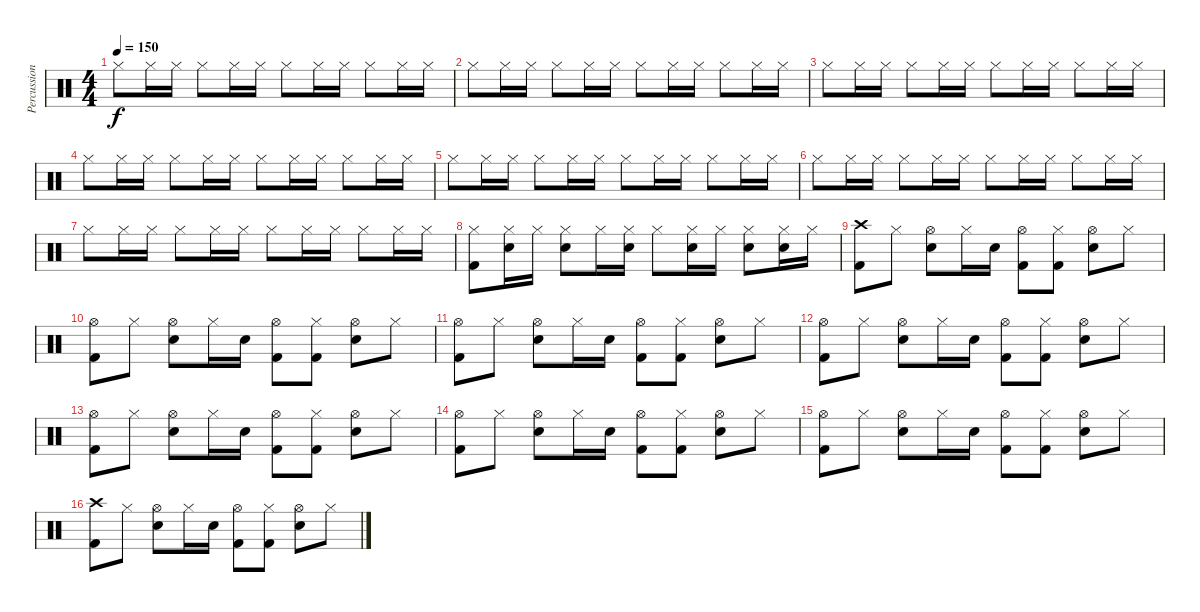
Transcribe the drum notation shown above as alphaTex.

\track ("Percussion" "Percussion") {instrument percussion}
\staff {score}
\articulation defaults
\ts (4 4)
\tempo 150
\clef neutral
\ks c "Hi-Hat (closed)".8{dy f} "Hi-Hat (closed)".16 "Hi-Hat (closed)".16 "Hi-Hat (closed)".8 "Hi-Hat (closed)".16 "Hi-Hat (closed)".16 "Hi-Hat (closed)".8 "Hi-Hat (closed)".16 "Hi-Hat (closed)".16 "Hi-Hat (closed)".8 "Hi-Hat (closed)".16 "Hi-Hat (closed)".16
|
"Hi-Hat (closed)".8 "Hi-Hat (closed)".16 "Hi-Hat (closed)".16 "Hi-Hat (closed)".8 "Hi-Hat (closed)".16 "Hi-Hat (closed)".16 "Hi-Hat (closed)".8 "Hi-Hat (closed)".16 "Hi-Hat (closed)".16 "Hi-Hat (closed)".8 "Hi-Hat (closed)".16 "Hi-Hat (closed)".16 |
"Hi-Hat (closed)".8 "Hi-Hat (closed)".16 "Hi-Hat (closed)".16 "Hi-Hat (closed)".8 "Hi-Hat (closed)".16 "Hi-Hat (closed)".16 "Hi-Hat (closed)".8 "Hi-Hat (closed)".16 "Hi-Hat (closed)".16 "Hi-Hat (closed)".8 "Hi-Hat (closed)".16 "Hi-Hat (closed)".16 |
"Hi-Hat (closed)".8 "Hi-Hat (closed)".16 "Hi-Hat (closed)".16 "Hi-Hat (closed)".8 "Hi-Hat (closed)".16 "Hi-Hat (closed)".16 "Hi-Hat (closed)".8 "Hi-Hat (closed)".16 "Hi-Hat (closed)".16 "Hi-Hat (closed)".8 "Hi-Hat (closed)".16 "Hi-Hat (closed)".16 |
"Hi-Hat (closed)".8 "Hi-Hat (closed)".16 "Hi-Hat (closed)".16 "Hi-Hat (closed)".8 "Hi-Hat (closed)".16 "Hi-Hat (closed)".16 "Hi-Hat (closed)".8 "Hi-Hat (closed)".16 "Hi-Hat (closed)".16 "Hi-Hat (closed)".8 "Hi-Hat (closed)".16 "Hi-Hat (closed)".16 |
"Hi-Hat (closed)".8 "Hi-Hat (closed)".16 "Hi-Hat (closed)".16 "Hi-Hat (closed)".8 "Hi-Hat (closed)".16 "Hi-Hat (closed)".16 "Hi-Hat (closed)".8 "Hi-Hat (closed)".16 "Hi-Hat (closed)".16 "Hi-Hat (closed)".8 "Hi-Hat (closed)".16 "Hi-Hat (closed)".16 |
"Hi-Hat (closed)".8 "Hi-Hat (closed)".16 "Hi-Hat (closed)".16 "Hi-Hat (closed)".8 "Hi-Hat (closed)".16 "Hi-Hat (closed)".16 "Hi-Hat (closed)".8 "Hi-Hat (closed)".16 "Hi-Hat (closed)".16 "Hi-Hat (closed)".8 "Hi-Hat (closed)".16 "Hi-Hat (closed)".16 |
("Hi-Hat (closed)" "Kick (hit) 2").8 ("Hi-Hat (closed)" "Electric Snare (hit)").16 "Hi-Hat (closed)".16 ("Hi-Hat (closed)" "Electric Snare (hit)").8 "Hi-Hat (closed)".16 ("Hi-Hat (closed)" "Electric Snare (hit)").16 "Hi-Hat (closed)".8 ("Hi-Hat (closed)" "Electric Snare (hit)").16 "Hi-Hat (closed)".16 ("Hi-Hat (closed)" "Electric Snare (hit)").8 ("Hi-Hat (closed)" "Electric Snare (hit)").16 "Hi-Hat (closed)".16 |
("Crash high (hit)" "Kick (hit) 2").8 "Hi-Hat (closed)".8 ("Hi-Hat (open)" "Electric Snare (hit)").8 "Hi-Hat (closed)".16 "Electric Snare (hit)".16 ("Hi-Hat (open)" "Kick (hit) 2").8 ("Hi-Hat (closed)" "Kick (hit) 2").8 ("Hi-Hat (open)" "Electric Snare (hit)").8 "Hi-Hat (closed)".8 |
("Hi-Hat (open)" "Kick (hit) 2").8 "Hi-Hat (closed)".8 ("Hi-Hat (open)" "Electric Snare (hit)").8 "Hi-Hat (closed)".16 "Electric Snare (hit)".16 ("Hi-Hat (open)" "Kick (hit) 2").8 ("Hi-Hat (closed)" "Kick (hit) 2").8 ("Hi-Hat (open)" "Electric Snare (hit)").8 "Hi-Hat (closed)".8 |
("Hi-Hat (open)" "Kick (hit) 2").8 "Hi-Hat (closed)".8 ("Hi-Hat (open)" "Electric Snare (hit)").8 "Hi-Hat (closed)".16 "Electric Snare (hit)".16 ("Hi-Hat (open)" "Kick (hit) 2").8 ("Hi-Hat (closed)" "Kick (hit) 2").8 ("Hi-Hat (open)" "Electric Snare (hit)").8 "Hi-Hat (closed)".8 |
("Hi-Hat (open)" "Kick (hit) 2").8 "Hi-Hat (closed)".8 ("Hi-Hat (open)" "Electric Snare (hit)").8 "Hi-Hat (closed)".16 "Electric Snare (hit)".16 ("Hi-Hat (open)" "Kick (hit) 2").8 ("Hi-Hat (closed)" "Kick (hit) 2").8 ("Hi-Hat (open)" "Electric Snare (hit)").8 "Hi-Hat (closed)".8 |
("Hi-Hat (open)" "Kick (hit) 2").8 "Hi-Hat (closed)".8 ("Hi-Hat (open)" "Electric Snare (hit)").8 "Hi-Hat (closed)".16 "Electric Snare (hit)".16 ("Hi-Hat (open)" "Kick (hit) 2").8 ("Hi-Hat (closed)" "Kick (hit) 2").8 ("Hi-Hat (open)" "Electric Snare (hit)").8 "Hi-Hat (closed)".8 |
("Hi-Hat (open)" "Kick (hit) 2").8 "Hi-Hat (closed)".8 ("Hi-Hat (open)" "Electric Snare (hit)").8 "Hi-Hat (closed)".16 "Electric Snare (hit)".16 ("Hi-Hat (open)" "Kick (hit) 2").8 ("Hi-Hat (closed)" "Kick (hit) 2").8 ("Hi-Hat (open)" "Electric Snare (hit)").8 "Hi-Hat (closed)".8 |
("Hi-Hat (open)" "Kick (hit) 2").8 "Hi-Hat (closed)".8 ("Hi-Hat (open)" "Electric Snare (hit)").8 "Hi-Hat (closed)".16 "Electric Snare (hit)".16 ("Hi-Hat (open)" "Kick (hit) 2").8 ("Hi-Hat (closed)" "Kick (hit) 2").8 ("Hi-Hat (open)" "Electric Snare (hit)").8 "Hi-Hat (closed)".8 |
("Crash high (hit)" "Kick (hit) 2").8 "Hi-Hat (closed)".8 ("Hi-Hat (open)" "Electric Snare (hit)").8 "Hi-Hat (closed)".16 "Electric Snare (hit)".16 ("Hi-Hat (open)" "Kick (hit) 2").8 ("Hi-Hat (closed)" "Kick (hit) 2").8 ("Hi-Hat (open)" "Electric Snare (hit)").8 "Hi-Hat (closed)".8
